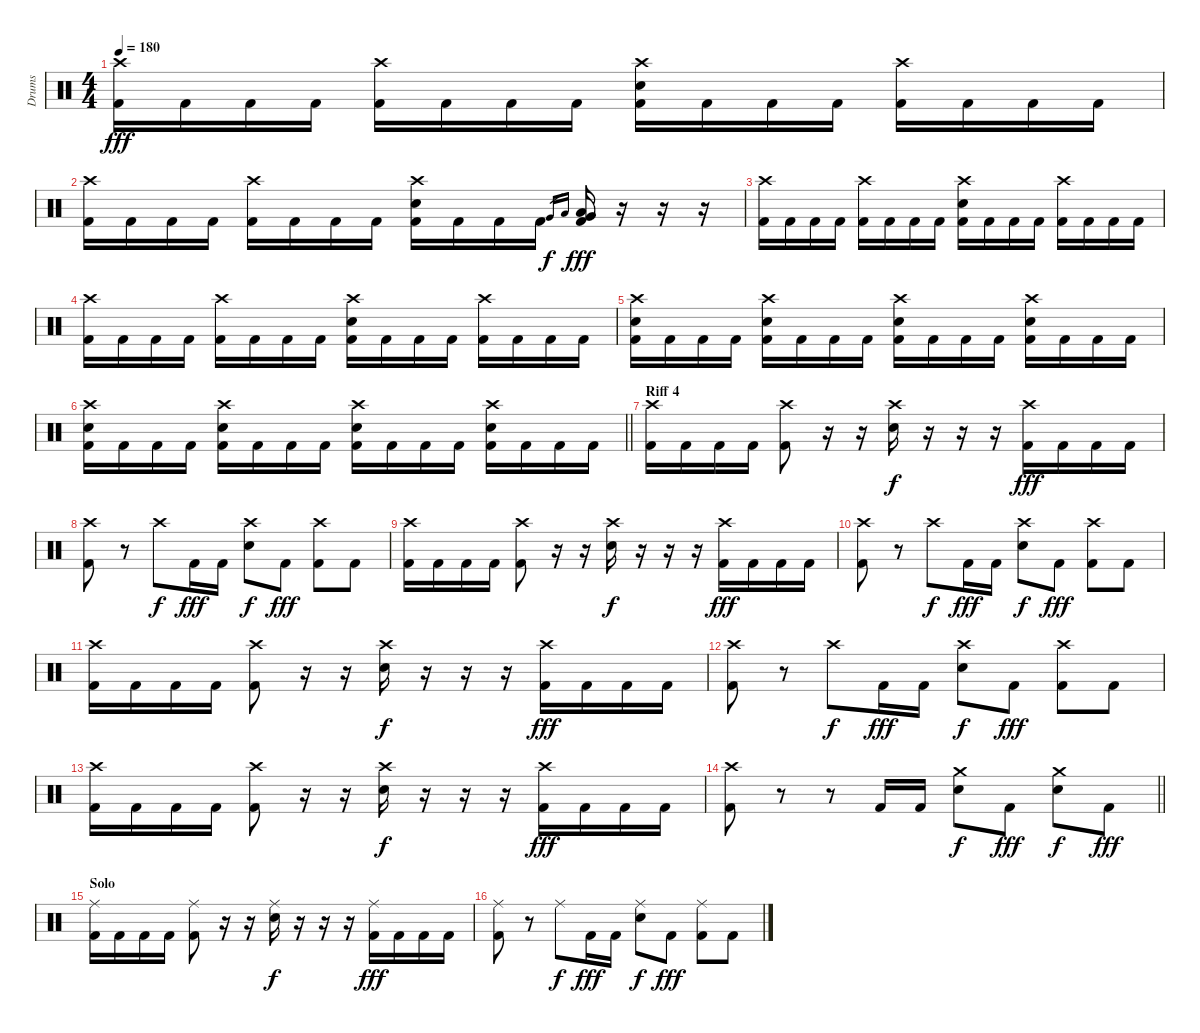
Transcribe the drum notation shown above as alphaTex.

\track ("Drums" "Drums") {instrument percussion}
\staff {score}
\articulation defaults
\ts (4 4)
\tempo 180
\clef neutral
\ks c
("Crash high (hit)" "Kick (hit) 2").16{dy fff} "Kick (hit) 2".16 "Kick (hit) 2".16 "Kick (hit) 2".16 ("Crash high (hit)" "Kick (hit) 2").16 "Kick (hit) 2".16 "Kick (hit) 2".16 "Kick (hit) 2".16 ("Crash high (hit)" "Electric Snare (hit)" "Kick (hit) 2").16 "Kick (hit) 2".16 "Kick (hit) 2".16 "Kick (hit) 2".16 ("Crash high (hit)" "Kick (hit) 2").16 "Kick (hit) 2".16 "Kick (hit) 2".16 "Kick (hit) 2".16 |
("Crash high (hit)" "Kick (hit) 2").16 "Kick (hit) 2".16 "Kick (hit) 2".16 "Kick (hit) 2".16 ("Crash high (hit)" "Kick (hit) 2").16 "Kick (hit) 2".16 "Kick (hit) 2".16 "Kick (hit) 2".16 ("Crash high (hit)" "Electric Snare (hit)" "Kick (hit) 2").16 "Kick (hit) 2".16 "Kick (hit) 2".16 "Kick (hit) 2".16 "Very Low Tom (hit)".16{gr dy f} "Low Floor Tom (hit)".16{gr} ("Very Low Tom (hit)" "Low Floor Tom (hit)" "Kick (hit) 2").16{dy fff} r.16 r.16 r.16 |
("Crash high (hit)" "Kick (hit) 2").16 "Kick (hit) 2".16 "Kick (hit) 2".16 "Kick (hit) 2".16 ("Crash high (hit)" "Kick (hit) 2").16 "Kick (hit) 2".16 "Kick (hit) 2".16 "Kick (hit) 2".16 ("Crash high (hit)" "Electric Snare (hit)" "Kick (hit) 2").16 "Kick (hit) 2".16 "Kick (hit) 2".16 "Kick (hit) 2".16 ("Crash high (hit)" "Kick (hit) 2").16 "Kick (hit) 2".16 "Kick (hit) 2".16 "Kick (hit) 2".16 |
("Crash high (hit)" "Kick (hit) 2").16 "Kick (hit) 2".16 "Kick (hit) 2".16 "Kick (hit) 2".16 ("Crash high (hit)" "Kick (hit) 2").16 "Kick (hit) 2".16 "Kick (hit) 2".16 "Kick (hit) 2".16 ("Crash high (hit)" "Electric Snare (hit)" "Kick (hit) 2").16 "Kick (hit) 2".16 "Kick (hit) 2".16 "Kick (hit) 2".16 ("Crash high (hit)" "Kick (hit) 2").16 "Kick (hit) 2".16 "Kick (hit) 2".16 "Kick (hit) 2".16 |
("Crash high (hit)" "Electric Snare (hit)" "Kick (hit) 2").16 "Kick (hit) 2".16 "Kick (hit) 2".16 "Kick (hit) 2".16 ("Crash high (hit)" "Electric Snare (hit)" "Kick (hit) 2").16 "Kick (hit) 2".16 "Kick (hit) 2".16 "Kick (hit) 2".16 ("Crash high (hit)" "Electric Snare (hit)" "Kick (hit) 2").16 "Kick (hit) 2".16 "Kick (hit) 2".16 "Kick (hit) 2".16 ("Crash high (hit)" "Electric Snare (hit)" "Kick (hit) 2").16 "Kick (hit) 2".16 "Kick (hit) 2".16 "Kick (hit) 2".16 |
\barLineRight lightlight
("Crash high (hit)" "Electric Snare (hit)" "Kick (hit) 2").16 "Kick (hit) 2".16 "Kick (hit) 2".16 "Kick (hit) 2".16 ("Crash high (hit)" "Electric Snare (hit)" "Kick (hit) 2").16 "Kick (hit) 2".16 "Kick (hit) 2".16 "Kick (hit) 2".16 ("Crash high (hit)" "Electric Snare (hit)" "Kick (hit) 2").16 "Kick (hit) 2".16 "Kick (hit) 2".16 "Kick (hit) 2".16 ("Crash high (hit)" "Electric Snare (hit)" "Kick (hit) 2").16 "Kick (hit) 2".16 "Kick (hit) 2".16 "Kick (hit) 2".16 |
\section ("" "Riff 4")
("Crash high (hit)" "Kick (hit) 2").16 "Kick (hit) 2".16 "Kick (hit) 2".16 "Kick (hit) 2".16 ("Crash high (hit)" "Kick (hit) 2").8 r.16 r.16 ("Crash high (hit)" "Electric Snare (hit)").16{dy f} r.16 r.16 r.16 ("Crash high (hit)" "Kick (hit) 2").16{dy fff} "Kick (hit) 2".16 "Kick (hit) 2".16 "Kick (hit) 2".16 |
("Crash high (hit)" "Kick (hit) 2").8 r.8 "Crash high (hit)".8{dy f} "Kick (hit) 2".16{dy fff} "Kick (hit) 2".16 ("Crash high (hit)" "Electric Snare (hit)").8{dy f} "Kick (hit) 2".8{dy fff} ("Crash high (hit)" "Kick (hit) 2").8 "Kick (hit) 2".8 |
("Crash high (hit)" "Kick (hit) 2").16 "Kick (hit) 2".16 "Kick (hit) 2".16 "Kick (hit) 2".16 ("Crash high (hit)" "Kick (hit) 2").8 r.16 r.16 ("Crash high (hit)" "Electric Snare (hit)").16{dy f} r.16 r.16 r.16 ("Crash high (hit)" "Kick (hit) 2").16{dy fff} "Kick (hit) 2".16 "Kick (hit) 2".16 "Kick (hit) 2".16 |
("Crash high (hit)" "Kick (hit) 2").8 r.8 "Crash high (hit)".8{dy f} "Kick (hit) 2".16{dy fff} "Kick (hit) 2".16 ("Crash high (hit)" "Electric Snare (hit)").8{dy f} "Kick (hit) 2".8{dy fff} ("Crash high (hit)" "Kick (hit) 2").8 "Kick (hit) 2".8 |
("Crash high (hit)" "Kick (hit) 2").16 "Kick (hit) 2".16 "Kick (hit) 2".16 "Kick (hit) 2".16 ("Crash high (hit)" "Kick (hit) 2").8 r.16 r.16 ("Crash high (hit)" "Electric Snare (hit)").16{dy f} r.16 r.16 r.16 ("Crash high (hit)" "Kick (hit) 2").16{dy fff} "Kick (hit) 2".16 "Kick (hit) 2".16 "Kick (hit) 2".16 |
("Crash high (hit)" "Kick (hit) 2").8 r.8 "Crash high (hit)".8{dy f} "Kick (hit) 2".16{dy fff} "Kick (hit) 2".16 ("Crash high (hit)" "Electric Snare (hit)").8{dy f} "Kick (hit) 2".8{dy fff} ("Crash high (hit)" "Kick (hit) 2").8 "Kick (hit) 2".8 |
("Crash high (hit)" "Kick (hit) 2").16 "Kick (hit) 2".16 "Kick (hit) 2".16 "Kick (hit) 2".16 ("Crash high (hit)" "Kick (hit) 2").8 r.16 r.16 ("Crash high (hit)" "Electric Snare (hit)").16{dy f} r.16 r.16 r.16 ("Crash high (hit)" "Kick (hit) 2").16{dy fff} "Kick (hit) 2".16 "Kick (hit) 2".16 "Kick (hit) 2".16 |
\barLineRight lightlight
("Crash high (hit)" "Kick (hit) 2").8 r.8 r.8 "Kick (hit) 2".16 "Kick (hit) 2".16 ("Crash medium (hit)" "Electric Snare (hit)").8{dy f} "Kick (hit) 2".8{dy fff} ("Crash medium (hit)" "Electric Snare (hit)").8{dy f} "Kick (hit) 2".8{dy fff} |
\section ("" "Solo")
("Ride (middle)" "Kick (hit) 2").16 "Kick (hit) 2".16 "Kick (hit) 2".16 "Kick (hit) 2".16 ("Ride (middle)" "Kick (hit) 2").8 r.16 r.16 ("Ride (middle)" "Electric Snare (hit)").16{dy f} r.16 r.16 r.16 ("Ride (middle)" "Kick (hit) 2").16{dy fff} "Kick (hit) 2".16 "Kick (hit) 2".16 "Kick (hit) 2".16 |
("Ride (middle)" "Kick (hit) 2").8 r.8 "Ride (middle)".8{dy f} "Kick (hit) 2".16{dy fff} "Kick (hit) 2".16 ("Ride (middle)" "Electric Snare (hit)").8{dy f} "Kick (hit) 2".8{dy fff} ("Ride (middle)" "Kick (hit) 2").8 "Kick (hit) 2".8
